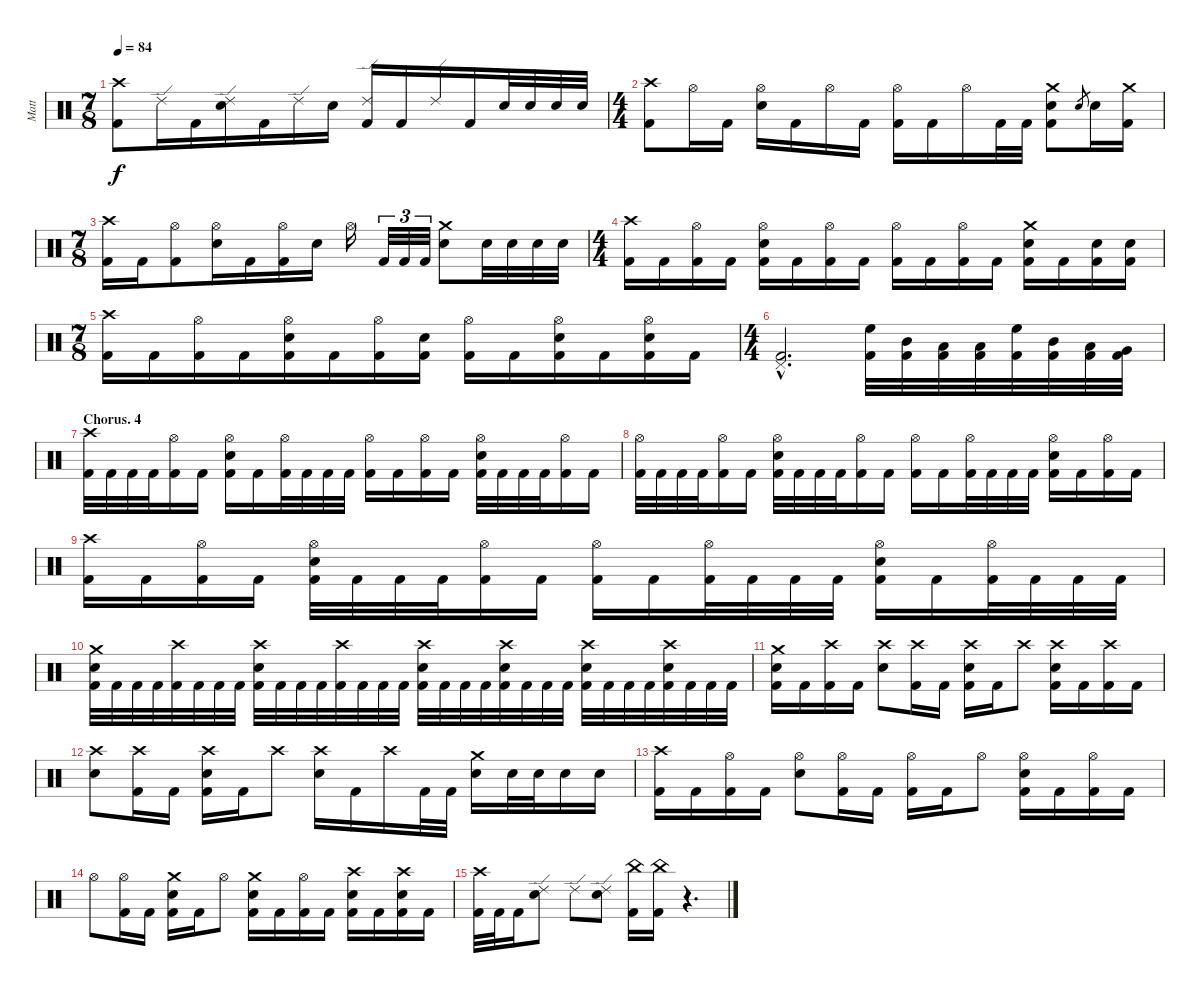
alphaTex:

\track ("Matt" "Matt") {instrument percussion}
\staff {score}
\articulation defaults
\ts (7 8)
\tempo 84
\clef neutral
\ks c
("Crash high (hit)" "Kick (hit) 2").8{dy f} "Ride (edge) 2".16 "Kick (hit) 2".16 ("Ride (edge) 2" "Electric Snare (hit)").16 "Kick (hit) 2".16 "Ride (edge) 2".16 "Electric Snare (hit)".16 ("Ride (edge) 2" "Kick (hit) 2").16 "Kick (hit) 2".16 "Ride (edge) 2".16 "Kick (hit) 2".16 "Electric Snare (hit)".32 "Electric Snare (hit)".32 "Electric Snare (hit)".32 "Electric Snare (hit)".32 |
\ts (4 4)
("Crash high (hit)" "Kick (hit) 2").8 "Hi-Hat (open)".16 "Kick (hit) 2".16 ("Hi-Hat (open)" "Electric Snare (hit)").16 "Kick (hit) 2".16 "Hi-Hat (open)".16 "Kick (hit) 2".16 ("Hi-Hat (open)" "Kick (hit) 2").16 "Kick (hit) 2".16 "Hi-Hat (open)".16 "Kick (hit) 2".32 "Kick (hit) 2".32 ("Crash medium (hit)" "Electric Snare (hit)" "Kick (hit) 2").8 "Electric Snare (hit)".8{gr} "Electric Snare (hit)".16 ("Crash medium (hit)" "Kick (hit) 2").16 |
\ts (7 8)
("Crash high (hit)" "Kick (hit) 2").16 "Kick (hit) 2".16 ("Hi-Hat (open)" "Kick (hit) 2").8 ("Hi-Hat (open)" "Electric Snare (hit)").16 "Kick (hit) 2".16 ("Hi-Hat (open)" "Kick (hit) 2").16 "Electric Snare (hit)".16 "Hi-Hat (open)".16 "Kick (hit) 2".32{tu (3 2)} "Kick (hit) 2".32{tu (3 2)} "Kick (hit) 2".32{tu (3 2)} ("Crash medium (hit)" "Electric Snare (hit)").8 "Electric Snare (hit)".32 "Electric Snare (hit)".32 "Electric Snare (hit)".32 "Electric Snare (hit)".32 |
\ts (4 4)
("Crash high (hit)" "Kick (hit) 2").16 "Kick (hit) 2".16 ("Hi-Hat (open)" "Kick (hit) 2").16 "Kick (hit) 2".16 ("Hi-Hat (open)" "Electric Snare (hit)" "Kick (hit) 2").16 "Kick (hit) 2".16 ("Hi-Hat (open)" "Kick (hit) 2").16 "Kick (hit) 2".16 ("Hi-Hat (open)" "Kick (hit) 2").16 "Kick (hit) 2".16 ("Hi-Hat (open)" "Kick (hit) 2").16 "Kick (hit) 2".16 ("Crash medium (hit)" "Electric Snare (hit)" "Kick (hit) 2").16 "Kick (hit) 2".16 ("Electric Snare (hit)" "Kick (hit) 2").16 ("Electric Snare (hit)" "Kick (hit) 2").16 |
\ts (7 8)
("Crash high (hit)" "Kick (hit) 2").16 "Kick (hit) 2".16 ("Hi-Hat (open)" "Kick (hit) 2").16 "Kick (hit) 2".16 ("Hi-Hat (open)" "Electric Snare (hit)" "Kick (hit) 2").16 "Kick (hit) 2".16 ("Hi-Hat (open)" "Kick (hit) 2").16 ("Electric Snare (hit)" "Kick (hit) 2").16 ("Hi-Hat (open)" "Kick (hit) 2").16 "Kick (hit) 2".16 ("Hi-Hat (open)" "Electric Snare (hit)" "Kick (hit) 2").16 "Kick (hit) 2".16 ("Hi-Hat (open)" "Electric Snare (hit)" "Kick (hit) 2").16 "Kick (hit) 2".16 |
\ts (4 4)
("Pedal Hi-Hat (hit)"{hac} "Kick (hit) 2"{hac}).2{d} ("High Floor Tom (hit)" "Kick (hit) 2").32 ("Mid Tom (hit)" "Kick (hit) 2").32 ("Low Tom (hit)" "Kick (hit) 2").32 ("Low Floor Tom (hit)" "Kick (hit) 2").32 ("High Floor Tom (hit)" "Kick (hit) 2").32 ("Mid Tom (hit)" "Kick (hit) 2").32 ("Low Tom (hit)" "Kick (hit) 2").32 ("Very Low Tom (hit)" "Kick (hit) 2").32 |
\section ("" "Chorus. 4")
("Crash high (hit)" "Kick (hit) 2").32 "Kick (hit) 2".32 "Kick (hit) 2".32 "Kick (hit) 2".32 ("Hi-Hat (open)" "Kick (hit) 2").16 "Kick (hit) 2".16 ("Hi-Hat (open)" "Electric Snare (hit)" "Kick (hit) 2").16 "Kick (hit) 2".16 ("Hi-Hat (open)" "Kick (hit) 2").32 "Kick (hit) 2".32 "Kick (hit) 2".32 "Kick (hit) 2".32 ("Hi-Hat (open)" "Kick (hit) 2").16 "Kick (hit) 2".16 ("Hi-Hat (open)" "Kick (hit) 2").16 "Kick (hit) 2".16 ("Hi-Hat (open)" "Electric Snare (hit)" "Kick (hit) 2").32 "Kick (hit) 2".32 "Kick (hit) 2".32 "Kick (hit) 2".32 ("Hi-Hat (open)" "Kick (hit) 2").16 "Kick (hit) 2".16 |
("Hi-Hat (open)" "Kick (hit) 2").32 "Kick (hit) 2".32 "Kick (hit) 2".32 "Kick (hit) 2".32 ("Hi-Hat (open)" "Kick (hit) 2").16 "Kick (hit) 2".16 ("Hi-Hat (open)" "Electric Snare (hit)" "Kick (hit) 2").32 "Kick (hit) 2".32 "Kick (hit) 2".32 "Kick (hit) 2".32 ("Hi-Hat (open)" "Kick (hit) 2").16 "Kick (hit) 2".16 ("Hi-Hat (open)" "Kick (hit) 2").16 "Kick (hit) 2".16 ("Hi-Hat (open)" "Kick (hit) 2").32 "Kick (hit) 2".32 "Kick (hit) 2".32 "Kick (hit) 2".32 ("Hi-Hat (open)" "Electric Snare (hit)" "Kick (hit) 2").16 "Kick (hit) 2".16 ("Hi-Hat (open)" "Kick (hit) 2").16 "Kick (hit) 2".16 |
("Crash high (hit)" "Kick (hit) 2").16 "Kick (hit) 2".16 ("Hi-Hat (open)" "Kick (hit) 2").16 "Kick (hit) 2".16 ("Hi-Hat (open)" "Electric Snare (hit)" "Kick (hit) 2").32 "Kick (hit) 2".32 "Kick (hit) 2".32 "Kick (hit) 2".32 ("Hi-Hat (open)" "Kick (hit) 2").16 "Kick (hit) 2".16 ("Hi-Hat (open)" "Kick (hit) 2").16 "Kick (hit) 2".16 ("Hi-Hat (open)" "Kick (hit) 2").32 "Kick (hit) 2".32 "Kick (hit) 2".32 "Kick (hit) 2".32 ("Hi-Hat (open)" "Electric Snare (hit)" "Kick (hit) 2").16 "Kick (hit) 2".16 ("Hi-Hat (open)" "Kick (hit) 2").32 "Kick (hit) 2".32 "Kick (hit) 2".32 "Kick (hit) 2".32 |
("Crash medium (hit)" "Electric Snare (hit)" "Kick (hit) 2").32 "Kick (hit) 2".32 "Kick (hit) 2".32 "Kick (hit) 2".32 ("Crash high (hit)" "Kick (hit) 2").32 "Kick (hit) 2".32 "Kick (hit) 2".32 "Kick (hit) 2".32 ("Crash high (hit)" "Electric Snare (hit)" "Kick (hit) 2").32 "Kick (hit) 2".32 "Kick (hit) 2".32 "Kick (hit) 2".32 ("Crash high (hit)" "Kick (hit) 2").32 "Kick (hit) 2".32 "Kick (hit) 2".32 "Kick (hit) 2".32 ("Crash high (hit)" "Electric Snare (hit)" "Kick (hit) 2").32 "Kick (hit) 2".32 "Kick (hit) 2".32 "Kick (hit) 2".32 ("Crash high (hit)" "Electric Snare (hit)" "Kick (hit) 2").32 "Kick (hit) 2".32 "Kick (hit) 2".32 "Kick (hit) 2".32 ("Crash high (hit)" "Electric Snare (hit)" "Kick (hit) 2").32 "Kick (hit) 2".32 "Kick (hit) 2".32 "Kick (hit) 2".32 ("Crash high (hit)" "Electric Snare (hit)" "Kick (hit) 2").32 "Kick (hit) 2".32 "Kick (hit) 2".32 "Kick (hit) 2".32 |
("Crash medium (hit)" "Electric Snare (hit)" "Kick (hit) 2").16 "Kick (hit) 2".16 ("Crash high (hit)" "Kick (hit) 2").16 "Kick (hit) 2".16 ("Crash high (hit)" "Electric Snare (hit)").8 ("Crash high (hit)" "Kick (hit) 2").16 "Kick (hit) 2".16 ("Crash high (hit)" "Electric Snare (hit)" "Kick (hit) 2").16 "Kick (hit) 2".16 "Crash high (hit)".8 ("Crash high (hit)" "Electric Snare (hit)" "Kick (hit) 2").16 "Kick (hit) 2".16 ("Crash high (hit)" "Kick (hit) 2").16 "Kick (hit) 2".16 |
("Crash high (hit)" "Electric Snare (hit)").8 ("Crash high (hit)" "Kick (hit) 2").16 "Kick (hit) 2".16 ("Crash high (hit)" "Electric Snare (hit)" "Kick (hit) 2").16 "Kick (hit) 2".16 "Crash high (hit)".8 ("Crash high (hit)" "Electric Snare (hit)").16 "Kick (hit) 2".16 "Crash high (hit)".16 "Kick (hit) 2".32 "Kick (hit) 2".32 ("Crash medium (hit)" "Electric Snare (hit)").16 "Electric Snare (hit)".32 "Electric Snare (hit)".32 "Electric Snare (hit)".16 "Electric Snare (hit)".16 |
("Crash high (hit)" "Kick (hit) 2").16 "Kick (hit) 2".16 ("Hi-Hat (open)" "Kick (hit) 2").16 "Kick (hit) 2".16 ("Hi-Hat (open)" "Electric Snare (hit)").8 ("Hi-Hat (open)" "Kick (hit) 2").16 "Kick (hit) 2".16 ("Hi-Hat (open)" "Kick (hit) 2").16 "Kick (hit) 2".16 "Hi-Hat (open)".8 ("Hi-Hat (open)" "Electric Snare (hit)" "Kick (hit) 2").16 "Kick (hit) 2".16 ("Hi-Hat (open)" "Kick (hit) 2").16 "Kick (hit) 2".16 |
"Hi-Hat (open)".8 ("Hi-Hat (open)" "Kick (hit) 2").16 "Kick (hit) 2".16 ("Crash medium (hit)" "Electric Snare (hit)" "Kick (hit) 2").16 "Kick (hit) 2".16 "Hi-Hat (open)".8 ("Crash medium (hit)" "Electric Snare (hit)" "Kick (hit) 2").16 "Kick (hit) 2".16 ("Hi-Hat (open)" "Kick (hit) 2").16 "Kick (hit) 2".16 ("Crash high (hit)" "Electric Snare (hit)" "Kick (hit) 2").16 "Kick (hit) 2".16 ("Crash high (hit)" "Electric Snare (hit)" "Kick (hit) 2").16 "Kick (hit) 2".16 |
("Crash high (hit)" "Kick (hit) 2").32 "Kick (hit) 2".32 "Kick (hit) 2".16 ("Ride (edge) 2" "Electric Snare (hit)").8 "Ride (edge) 2".8 ("Ride (edge) 2" "Electric Snare (hit)").8 ("China (hit)" "Kick (hit) 2").16 ("China (hit)" "Kick (hit) 2").16 r.4{d}
